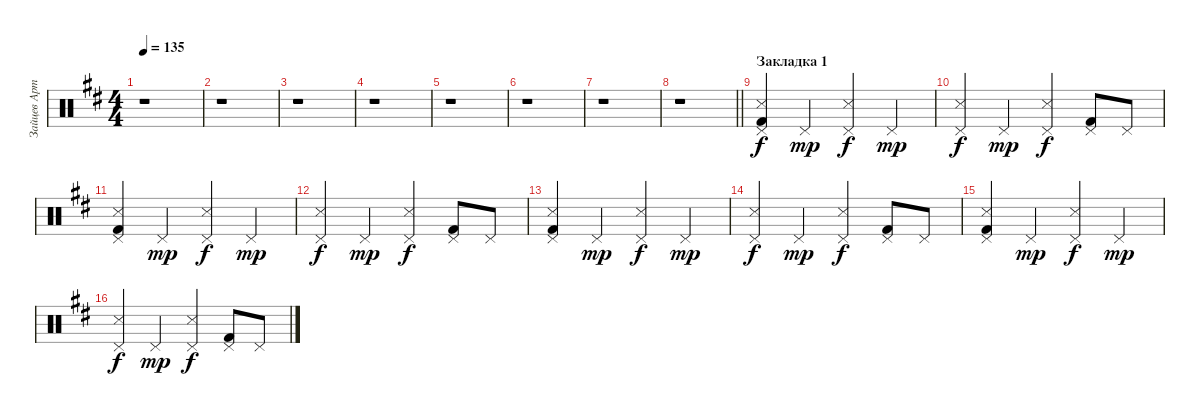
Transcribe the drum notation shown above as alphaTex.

\track ("Зайцев Артём" "Зайцев Арт") {instrument percussion}
\staff {score}
\articulation defaults
\ts (4 4)
\tempo 135
\clef neutral
\ks d
r.1{dy f} |
r.1 |
r.1 |
r.1 |
r.1 |
r.1 |
r.1 |
\barLineRight lightlight
r.1 |
\section ("" "Закладка 1")
("Kick (hit) 2" "Snare (side stick) 3" "Pedal Hi-Hat (hit)").4 "Pedal Hi-Hat (hit)".4{dy mp} ("Pedal Hi-Hat (hit)" "Snare (side stick) 3").4{dy f} "Pedal Hi-Hat (hit)".4{dy mp} |
("Pedal Hi-Hat (hit)" "Snare (side stick) 3").4{dy f} "Pedal Hi-Hat (hit)".4{dy mp} ("Pedal Hi-Hat (hit)" "Snare (side stick) 3").4{dy f} ("Pedal Hi-Hat (hit)" "Kick (hit) 2").8 "Pedal Hi-Hat (hit)".8 |
("Kick (hit) 2" "Snare (side stick) 3" "Pedal Hi-Hat (hit)").4 "Pedal Hi-Hat (hit)".4{dy mp} ("Pedal Hi-Hat (hit)" "Snare (side stick) 3").4{dy f} "Pedal Hi-Hat (hit)".4{dy mp} |
("Pedal Hi-Hat (hit)" "Snare (side stick) 3").4{dy f} "Pedal Hi-Hat (hit)".4{dy mp} ("Pedal Hi-Hat (hit)" "Snare (side stick) 3").4{dy f} ("Pedal Hi-Hat (hit)" "Kick (hit) 2").8 "Pedal Hi-Hat (hit)".8 |
("Kick (hit) 2" "Snare (side stick) 3" "Pedal Hi-Hat (hit)").4 "Pedal Hi-Hat (hit)".4{dy mp} ("Pedal Hi-Hat (hit)" "Snare (side stick) 3").4{dy f} "Pedal Hi-Hat (hit)".4{dy mp} |
("Pedal Hi-Hat (hit)" "Snare (side stick) 3").4{dy f} "Pedal Hi-Hat (hit)".4{dy mp} ("Pedal Hi-Hat (hit)" "Snare (side stick) 3").4{dy f} ("Pedal Hi-Hat (hit)" "Kick (hit) 2").8 "Pedal Hi-Hat (hit)".8 |
("Kick (hit) 2" "Snare (side stick) 3" "Pedal Hi-Hat (hit)").4 "Pedal Hi-Hat (hit)".4{dy mp} ("Pedal Hi-Hat (hit)" "Snare (side stick) 3").4{dy f} "Pedal Hi-Hat (hit)".4{dy mp} |
("Pedal Hi-Hat (hit)" "Snare (side stick) 3").4{dy f} "Pedal Hi-Hat (hit)".4{dy mp} ("Pedal Hi-Hat (hit)" "Snare (side stick) 3").4{dy f} ("Pedal Hi-Hat (hit)" "Kick (hit) 2").8 "Pedal Hi-Hat (hit)".8
